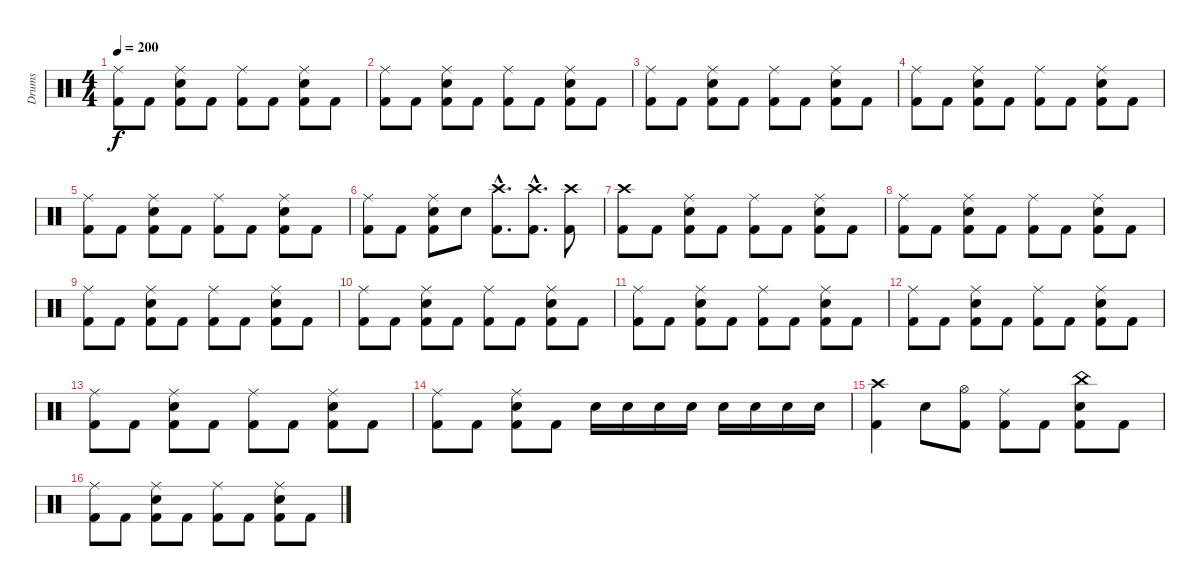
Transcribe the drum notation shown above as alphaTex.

\track ("Drums" "Drums") {instrument percussion}
\staff {score}
\articulation defaults
\ts (4 4)
\tempo 200
\clef neutral
\ks c
("Ride (middle)" "Kick (hit) 2").8{dy f} "Kick (hit) 2".8 ("Ride (middle)" "Snare (hit) 2" "Kick (hit) 2").8 "Kick (hit) 2".8 ("Ride (middle)" "Kick (hit) 2").8 "Kick (hit) 2".8 ("Ride (middle)" "Snare (hit) 2" "Kick (hit) 2").8 "Kick (hit) 2".8 |
("Ride (middle)" "Kick (hit) 2").8 "Kick (hit) 2".8 ("Ride (middle)" "Snare (hit) 2" "Kick (hit) 2").8 "Kick (hit) 2".8 ("Ride (middle)" "Kick (hit) 2").8 "Kick (hit) 2".8 ("Ride (middle)" "Snare (hit) 2" "Kick (hit) 2").8 "Kick (hit) 2".8 |
("Ride (middle)" "Kick (hit) 2").8 "Kick (hit) 2".8 ("Ride (middle)" "Snare (hit) 2" "Kick (hit) 2").8 "Kick (hit) 2".8 ("Ride (middle)" "Kick (hit) 2").8 "Kick (hit) 2".8 ("Ride (middle)" "Snare (hit) 2" "Kick (hit) 2").8 "Kick (hit) 2".8 |
("Ride (middle)" "Kick (hit) 2").8 "Kick (hit) 2".8 ("Ride (middle)" "Snare (hit) 2" "Kick (hit) 2").8 "Kick (hit) 2".8 ("Ride (middle)" "Kick (hit) 2").8 "Kick (hit) 2".8 ("Ride (middle)" "Snare (hit) 2" "Kick (hit) 2").8 "Kick (hit) 2".8 |
("Ride (middle)" "Kick (hit) 2").8 "Kick (hit) 2".8 ("Ride (middle)" "Snare (hit) 2" "Kick (hit) 2").8 "Kick (hit) 2".8 ("Ride (middle)" "Kick (hit) 2").8 "Kick (hit) 2".8 ("Ride (middle)" "Snare (hit) 2" "Kick (hit) 2").8 "Kick (hit) 2".8 |
("Ride (middle)" "Kick (hit) 2").8 "Kick (hit) 2".8 ("Ride (middle)" "Snare (hit) 2" "Kick (hit) 2").8 "Snare (hit) 2".8 ("Crash high (hit)"{hac} "Kick (hit) 2"{hac}).8{d} ("Crash high (hit)"{hac} "Kick (hit) 2"{hac}).8{d} ("Crash high (hit)" "Kick (hit) 2").8 |
("Crash high (hit)" "Kick (hit) 2").8 "Kick (hit) 2".8 ("Ride (middle)" "Snare (hit) 2" "Kick (hit) 2").8 "Kick (hit) 2".8 ("Ride (middle)" "Kick (hit) 2").8 "Kick (hit) 2".8 ("Ride (middle)" "Snare (hit) 2" "Kick (hit) 2").8 "Kick (hit) 2".8 |
("Ride (middle)" "Kick (hit) 2").8 "Kick (hit) 2".8 ("Ride (middle)" "Snare (hit) 2" "Kick (hit) 2").8 "Kick (hit) 2".8 ("Ride (middle)" "Kick (hit) 2").8 "Kick (hit) 2".8 ("Ride (middle)" "Snare (hit) 2" "Kick (hit) 2").8 "Kick (hit) 2".8 |
("Ride (middle)" "Kick (hit) 2").8 "Kick (hit) 2".8 ("Ride (middle)" "Snare (hit) 2" "Kick (hit) 2").8 "Kick (hit) 2".8 ("Ride (middle)" "Kick (hit) 2").8 "Kick (hit) 2".8 ("Ride (middle)" "Snare (hit) 2" "Kick (hit) 2").8 "Kick (hit) 2".8 |
("Ride (middle)" "Kick (hit) 2").8 "Kick (hit) 2".8 ("Ride (middle)" "Snare (hit) 2" "Kick (hit) 2").8 "Kick (hit) 2".8 ("Ride (middle)" "Kick (hit) 2").8 "Kick (hit) 2".8 ("Ride (middle)" "Snare (hit) 2" "Kick (hit) 2").8 "Kick (hit) 2".8 |
("Ride (middle)" "Kick (hit) 2").8 "Kick (hit) 2".8 ("Ride (middle)" "Snare (hit) 2" "Kick (hit) 2").8 "Kick (hit) 2".8 ("Ride (middle)" "Kick (hit) 2").8 "Kick (hit) 2".8 ("Ride (middle)" "Snare (hit) 2" "Kick (hit) 2").8 "Kick (hit) 2".8 |
("Ride (middle)" "Kick (hit) 2").8 "Kick (hit) 2".8 ("Ride (middle)" "Snare (hit) 2" "Kick (hit) 2").8 "Kick (hit) 2".8 ("Ride (middle)" "Kick (hit) 2").8 "Kick (hit) 2".8 ("Ride (middle)" "Snare (hit) 2" "Kick (hit) 2").8 "Kick (hit) 2".8 |
("Ride (middle)" "Kick (hit) 2").8 "Kick (hit) 2".8 ("Ride (middle)" "Snare (hit) 2" "Kick (hit) 2").8 "Kick (hit) 2".8 ("Ride (middle)" "Kick (hit) 2").8 "Kick (hit) 2".8 ("Ride (middle)" "Snare (hit) 2" "Kick (hit) 2").8 "Kick (hit) 2".8 |
("Ride (middle)" "Kick (hit) 2").8 "Kick (hit) 2".8 ("Ride (middle)" "Snare (hit) 2" "Kick (hit) 2").8 "Kick (hit) 2".8 "Snare (hit) 2".16 "Snare (hit) 2".16 "Snare (hit) 2".16 "Snare (hit) 2".16 "Snare (hit) 2".16 "Snare (hit) 2".16 "Snare (hit) 2".16 "Snare (hit) 2".16 |
("Crash high (hit)" "Kick (hit) 2").4 "Snare (hit) 2".8 ("Hi-Hat (open)" "Kick (hit) 2").8 ("Ride (middle)" "Kick (hit) 2").8 "Kick (hit) 2".8 ("China (hit)" "Snare (hit) 2" "Kick (hit) 2").8 "Kick (hit) 2".8 |
("Ride (middle)" "Kick (hit) 2").8 "Kick (hit) 2".8 ("Ride (middle)" "Snare (hit) 2" "Kick (hit) 2").8 "Kick (hit) 2".8 ("Ride (middle)" "Kick (hit) 2").8 "Kick (hit) 2".8 ("Ride (middle)" "Snare (hit) 2" "Kick (hit) 2").8 "Kick (hit) 2".8
